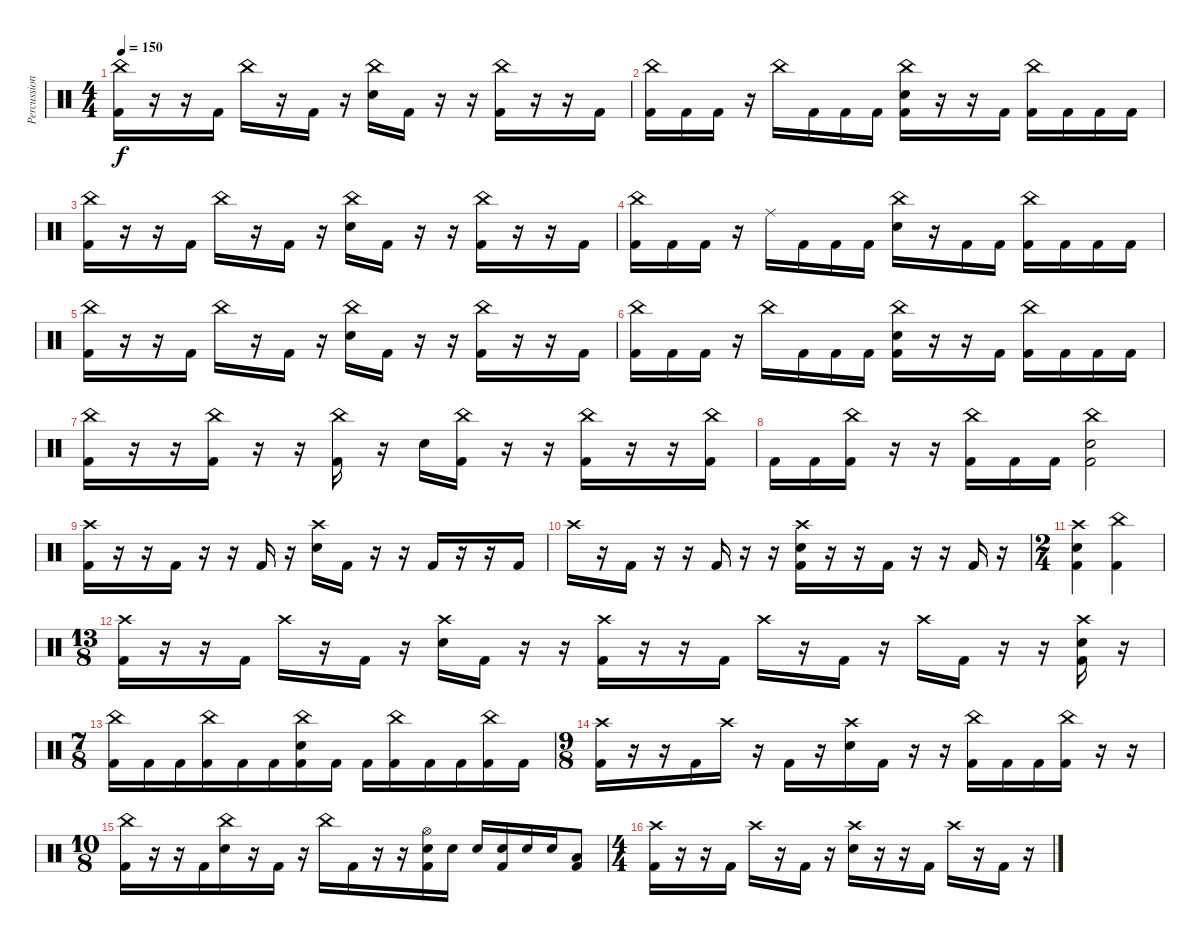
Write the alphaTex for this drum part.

\track ("Percussion" "Percussion") {instrument percussion}
\staff {score}
\articulation defaults
\ts (4 4)
\tempo 150
\clef neutral
\ks c
("China (hit)" "Kick (hit) 2").16{dy f} r.16 r.16 "Kick (hit) 2".16 "China (hit)".16 r.16 "Kick (hit) 2".16 r.16 ("China (hit)" "Snare (hit) 2").16 "Kick (hit) 2".16 r.16 r.16 ("China (hit)" "Kick (hit) 2").16 r.16 r.16 "Kick (hit) 2".16 |
("China (hit)" "Kick (hit) 2").16 "Kick (hit) 2".16 "Kick (hit) 2".16 r.16 "China (hit)".16 "Kick (hit) 2".16 "Kick (hit) 2".16 "Kick (hit) 2".16 ("China (hit)" "Snare (hit) 2" "Kick (hit) 2").16 r.16 r.16 "Kick (hit) 2".16 ("China (hit)" "Kick (hit) 2").16 "Kick (hit) 2".16 "Kick (hit) 2".16 "Kick (hit) 2".16 |
("China (hit)" "Kick (hit) 2").16 r.16 r.16 "Kick (hit) 2".16 "China (hit)".16 r.16 "Kick (hit) 2".16 r.16 ("China (hit)" "Snare (hit) 2").16 "Kick (hit) 2".16 r.16 r.16 ("China (hit)" "Kick (hit) 2").16 r.16 r.16 "Kick (hit) 2".16 |
("China (hit)" "Kick (hit) 2").16 "Kick (hit) 2".16 "Kick (hit) 2".16 r.16 "Ride (middle)".16 "Kick (hit) 2".16 "Kick (hit) 2".16 "Kick (hit) 2".16 ("China (hit)" "Snare (hit) 2").16 r.16 "Kick (hit) 2".16 "Kick (hit) 2".16 ("China (hit)" "Kick (hit) 2").16 "Kick (hit) 2".16 "Kick (hit) 2".16 "Kick (hit) 2".16 |
("China (hit)" "Kick (hit) 2").16 r.16 r.16 "Kick (hit) 2".16 "China (hit)".16 r.16 "Kick (hit) 2".16 r.16 ("China (hit)" "Snare (hit) 2").16 "Kick (hit) 2".16 r.16 r.16 ("China (hit)" "Kick (hit) 2").16 r.16 r.16 "Kick (hit) 2".16 |
("China (hit)" "Kick (hit) 2").16 "Kick (hit) 2".16 "Kick (hit) 2".16 r.16 "China (hit)".16 "Kick (hit) 2".16 "Kick (hit) 2".16 "Kick (hit) 2".16 ("China (hit)" "Snare (hit) 2" "Kick (hit) 2").16 r.16 r.16 "Kick (hit) 2".16 ("China (hit)" "Kick (hit) 2").16 "Kick (hit) 2".16 "Kick (hit) 2".16 "Kick (hit) 2".16 |
("China (hit)" "Kick (hit) 2").16 r.16 r.16 ("China (hit)" "Kick (hit) 2").16 r.16 r.16 ("China (hit)" "Kick (hit) 2").16 r.16 "Snare (hit) 2".16 ("China (hit)" "Kick (hit) 2").16 r.16 r.16 ("China (hit)" "Kick (hit) 2").16 r.16 r.16 ("China (hit)" "Kick (hit) 2").16 |
"Kick (hit) 2".16 "Kick (hit) 2".16 ("China (hit)" "Kick (hit) 2").16 r.16 r.16 ("China (hit)" "Kick (hit) 2").16 "Kick (hit) 2".16 "Kick (hit) 2".16 ("China (hit)" "Snare (hit) 2" "Kick (hit) 2").2 |
("Crash high (hit)" "Kick (hit) 2").16 r.16 r.16 "Kick (hit) 2".16 r.16 r.16 "Kick (hit) 2".16 r.16 ("Crash high (hit)" "Snare (hit) 2").16 "Kick (hit) 2".16 r.16 r.16 "Kick (hit) 2".16 r.16 r.16 "Kick (hit) 2".16 |
"Crash high (hit)".16 r.16 "Kick (hit) 2".16 r.16 r.16 "Kick (hit) 2".16 r.16 r.16 ("Crash high (hit)" "Snare (hit) 2" "Kick (hit) 2").16 r.16 r.16 "Kick (hit) 2".16 r.16 r.16 "Kick (hit) 2".16 r.16 |
\ts (2 4)
("Crash high (hit)" "Snare (hit) 2" "Kick (hit) 2").4 ("China (hit)" "Kick (hit) 2").4 |
\ts (13 8)
("Crash high (hit)" "Kick (hit) 2").16 r.16 r.16 "Kick (hit) 2".16 "Crash high (hit)".16 r.16 "Kick (hit) 2".16 r.16 ("Crash high (hit)" "Snare (hit) 2").16 "Kick (hit) 2".16 r.16 r.16 ("Crash high (hit)" "Kick (hit) 2").16 r.16 r.16 "Kick (hit) 2".16 "Crash high (hit)".16 r.16 "Kick (hit) 2".16 r.16 "Crash high (hit)".16 "Kick (hit) 2".16 r.16 r.16 ("Crash high (hit)" "Snare (hit) 2" "Kick (hit) 2").16 r.16 |
\ts (7 8)
("China (hit)" "Kick (hit) 2").16 "Kick (hit) 2".16 "Kick (hit) 2".16 ("China (hit)" "Kick (hit) 2").16 "Kick (hit) 2".16 "Kick (hit) 2".16 ("China (hit)" "Snare (hit) 2" "Kick (hit) 2").16 "Kick (hit) 2".16 "Kick (hit) 2".16 ("China (hit)" "Kick (hit) 2").16 "Kick (hit) 2".16 "Kick (hit) 2".16 ("China (hit)" "Kick (hit) 2").16 "Kick (hit) 2".16 |
\ts (9 8)
("Crash high (hit)" "Kick (hit) 2").16 r.16 r.16 "Kick (hit) 2".16 "Crash high (hit)".16 r.16 "Kick (hit) 2".16 r.16 ("Crash high (hit)" "Snare (hit) 2").16 "Kick (hit) 2".16 r.16 r.16 ("China (hit)" "Kick (hit) 2").16 "Kick (hit) 2".16 "Kick (hit) 2".16 ("China (hit)" "Kick (hit) 2").16 r.16 r.16 |
\ts (10 8)
("China (hit)" "Kick (hit) 2").16 r.16 r.16 "Kick (hit) 2".16 ("China (hit)" "Snare (hit) 2").16 r.16 "Kick (hit) 2".16 r.16 "China (hit)".16 "Kick (hit) 2".16 r.16 r.16 ("Hi-Hat (open)" "Snare (hit) 2" "Kick (hit) 2").16 "Snare (hit) 2".16 "Snare (hit) 2".16 ("Snare (hit) 2" "Kick (hit) 2").16 "Snare (hit) 2".16 "Snare (hit) 2".16 ("Low Tom (hit)" "Kick (hit) 2").8 |
\ts (4 4)
("Crash high (hit)" "Kick (hit) 2").16 r.16 r.16 "Kick (hit) 2".16 "Crash high (hit)".16 r.16 "Kick (hit) 2".16 r.16 ("Crash high (hit)" "Snare (hit) 2").16 r.16 r.16 "Kick (hit) 2".16 "Crash high (hit)".16 r.16 "Kick (hit) 2".16 r.16
